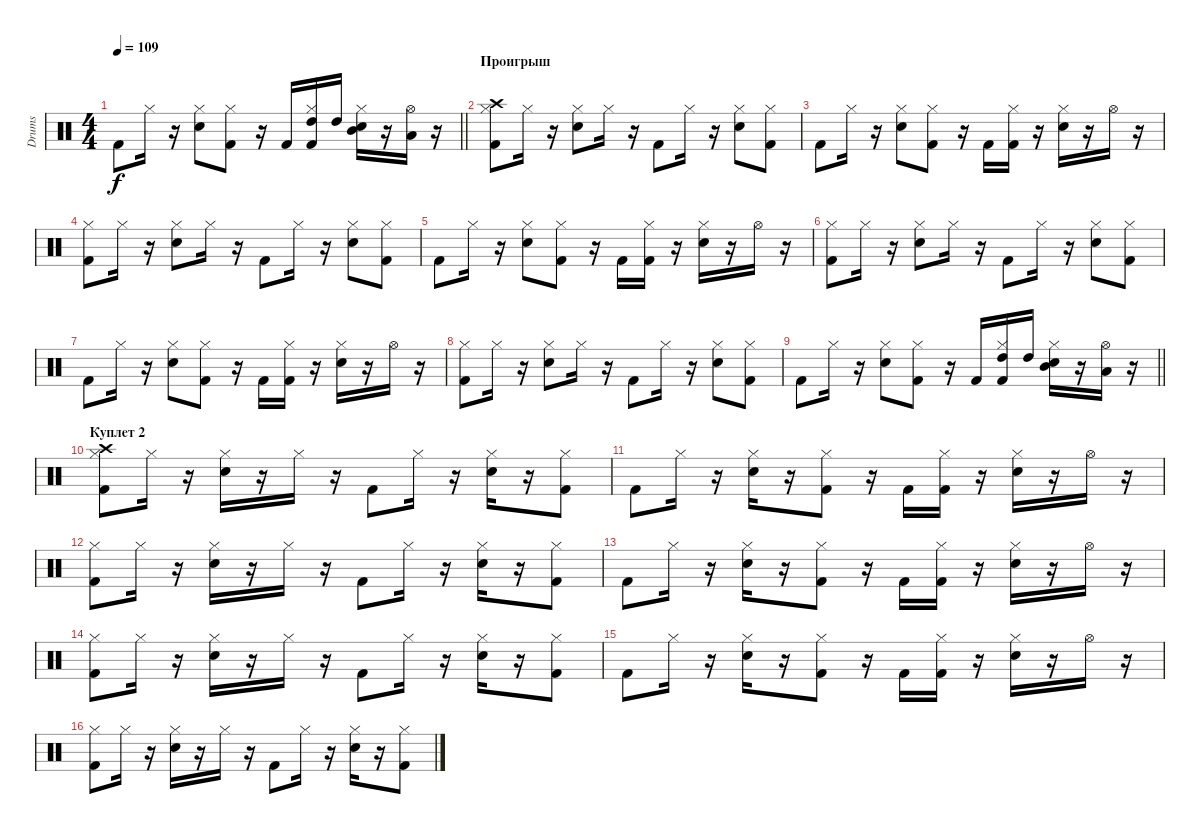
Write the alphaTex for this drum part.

\track ("Drums" "Drums") {instrument percussion}
\staff {score}
\articulation defaults
\ts (4 4)
\tempo 109
\clef neutral
\barLineRight lightlight
\ks c "Kick (hit) 2".8{dy f} "Hi-Hat (closed)".16
r.16 ("Snare (hit) 2" "Hi-Hat (closed)").8 ("Kick (hit) 2" "Hi-Hat (closed)").8 r.16 "Kick (hit) 2".16 ("High Tom (hit)" "Hi-Hat (closed)" "Kick (hit) 2").16 "High Tom (hit)".16 ("Snare (hit) 2" "Hi-Hat (closed)" "Mid Tom (hit)").16 r.16 ("Hi-Hat (open)" "Low Tom (hit)").16 r.16 |
\section ("" "Проигрыш")
("Kick (hit) 2" "Hi-Hat (closed)" "Crash high (hit)").8 "Hi-Hat (closed)".16 r.16 ("Hi-Hat (closed)" "Snare (hit) 2").8 "Hi-Hat (closed)".16 r.16 "Kick (hit) 2".8 "Hi-Hat (closed)".16 r.16 ("Hi-Hat (closed)" "Snare (hit) 2").8 ("Kick (hit) 2" "Hi-Hat (closed)").8 |
"Kick (hit) 2".8 "Hi-Hat (closed)".16 r.16 ("Hi-Hat (closed)" "Snare (hit) 2").8 ("Kick (hit) 2" "Hi-Hat (closed)").8 r.16 "Kick (hit) 2".16 ("Kick (hit) 2" "Hi-Hat (closed)").16 r.16 ("Hi-Hat (closed)" "Snare (hit) 2").16 r.16 "Hi-Hat (open)".16 r.16 |
("Kick (hit) 2" "Hi-Hat (closed)").8 "Hi-Hat (closed)".16 r.16 ("Snare (hit) 2" "Hi-Hat (closed)").8 "Hi-Hat (closed)".16 r.16 "Kick (hit) 2".8 "Hi-Hat (closed)".16 r.16 ("Snare (hit) 2" "Hi-Hat (closed)").8 ("Hi-Hat (closed)" "Kick (hit) 2").8 |
"Kick (hit) 2".8 "Hi-Hat (closed)".16 r.16 ("Hi-Hat (closed)" "Snare (hit) 2").8 ("Kick (hit) 2" "Hi-Hat (closed)").8 r.16 "Kick (hit) 2".16 ("Kick (hit) 2" "Hi-Hat (closed)").16 r.16 ("Hi-Hat (closed)" "Snare (hit) 2").16 r.16 "Hi-Hat (open)".16 r.16 |
("Kick (hit) 2" "Hi-Hat (closed)").8 "Hi-Hat (closed)".16 r.16 ("Hi-Hat (closed)" "Snare (hit) 2").8 "Hi-Hat (closed)".16 r.16 "Kick (hit) 2".8 "Hi-Hat (closed)".16 r.16 ("Hi-Hat (closed)" "Snare (hit) 2").8 ("Kick (hit) 2" "Hi-Hat (closed)").8 |
"Kick (hit) 2".8 "Hi-Hat (closed)".16 r.16 ("Hi-Hat (closed)" "Snare (hit) 2").8 ("Kick (hit) 2" "Hi-Hat (closed)").8 r.16 "Kick (hit) 2".16 ("Kick (hit) 2" "Hi-Hat (closed)").16 r.16 ("Hi-Hat (closed)" "Snare (hit) 2").16 r.16 "Hi-Hat (open)".16 r.16 |
("Kick (hit) 2" "Hi-Hat (closed)").8 "Hi-Hat (closed)".16 r.16 ("Snare (hit) 2" "Hi-Hat (closed)").8 "Hi-Hat (closed)".16 r.16 "Kick (hit) 2".8 "Hi-Hat (closed)".16 r.16 ("Snare (hit) 2" "Hi-Hat (closed)").8 ("Hi-Hat (closed)" "Kick (hit) 2").8 |
\barLineRight lightlight "Kick (hit) 2".8 "Hi-Hat (closed)".16
r.16 ("Snare (hit) 2" "Hi-Hat (closed)").8 ("Kick (hit) 2" "Hi-Hat (closed)").8 r.16 "Kick (hit) 2".16 ("High Tom (hit)" "Hi-Hat (closed)" "Kick (hit) 2").16 "High Tom (hit)".16 ("Snare (hit) 2" "Hi-Hat (closed)" "Mid Tom (hit)").16 r.16 ("Hi-Hat (open)" "Low Tom (hit)").16 r.16 |
\section ("" "Куплет 2")
("Crash high (hit)" "Hi-Hat (closed)" "Kick (hit) 2").8 "Hi-Hat (closed)".16 r.16 ("Hi-Hat (closed)" "Snare (hit) 2").16 r.16 "Hi-Hat (closed)".16 r.16 "Kick (hit) 2".8 "Hi-Hat (closed)".16 r.16 ("Hi-Hat (closed)" "Snare (hit) 2").16 r.16 ("Hi-Hat (closed)" "Kick (hit) 2").8 |
"Kick (hit) 2".8 "Hi-Hat (closed)".16 r.16 ("Hi-Hat (closed)" "Snare (hit) 2").16 r.16 ("Kick (hit) 2" "Hi-Hat (closed)").8 r.16 "Kick (hit) 2".16 ("Kick (hit) 2" "Hi-Hat (closed)").16 r.16 ("Hi-Hat (closed)" "Snare (hit) 2").16 r.16 "Hi-Hat (open)".16 r.16 |
("Hi-Hat (closed)" "Kick (hit) 2").8 "Hi-Hat (closed)".16 r.16 ("Snare (hit) 2" "Hi-Hat (closed)").16 r.16 "Hi-Hat (closed)".16 r.16 "Kick (hit) 2".8 "Hi-Hat (closed)".16 r.16 ("Hi-Hat (closed)" "Snare (hit) 2").16 r.16 ("Kick (hit) 2" "Hi-Hat (closed)").8 |
"Kick (hit) 2".8 "Hi-Hat (closed)".16 r.16 ("Snare (hit) 2" "Hi-Hat (closed)").16 r.16 ("Hi-Hat (closed)" "Kick (hit) 2").8 r.16 "Kick (hit) 2".16 ("Hi-Hat (closed)" "Kick (hit) 2").16 r.16 ("Hi-Hat (closed)" "Snare (hit) 2").16 r.16 "Hi-Hat (open)".16 r.16 |
("Kick (hit) 2" "Hi-Hat (closed)").8 "Hi-Hat (closed)".16 r.16 ("Hi-Hat (closed)" "Snare (hit) 2").16 r.16 "Hi-Hat (closed)".16 r.16 "Kick (hit) 2".8 "Hi-Hat (closed)".16 r.16 ("Hi-Hat (closed)" "Snare (hit) 2").16 r.16 ("Kick (hit) 2" "Hi-Hat (closed)").8 |
"Kick (hit) 2".8 "Hi-Hat (closed)".16 r.16 ("Hi-Hat (closed)" "Snare (hit) 2").16 r.16 ("Kick (hit) 2" "Hi-Hat (closed)").8 r.16 "Kick (hit) 2".16 ("Hi-Hat (closed)" "Kick (hit) 2").16 r.16 ("Hi-Hat (closed)" "Snare (hit) 2").16 r.16 "Hi-Hat (open)".16 r.16 |
("Kick (hit) 2" "Hi-Hat (closed)").8 "Hi-Hat (closed)".16 r.16 ("Hi-Hat (closed)" "Snare (hit) 2").16 r.16 "Hi-Hat (closed)".16 r.16 "Kick (hit) 2".8 "Hi-Hat (closed)".16 r.16 ("Hi-Hat (closed)" "Snare (hit) 2").16 r.16 ("Kick (hit) 2" "Hi-Hat (closed)").8
